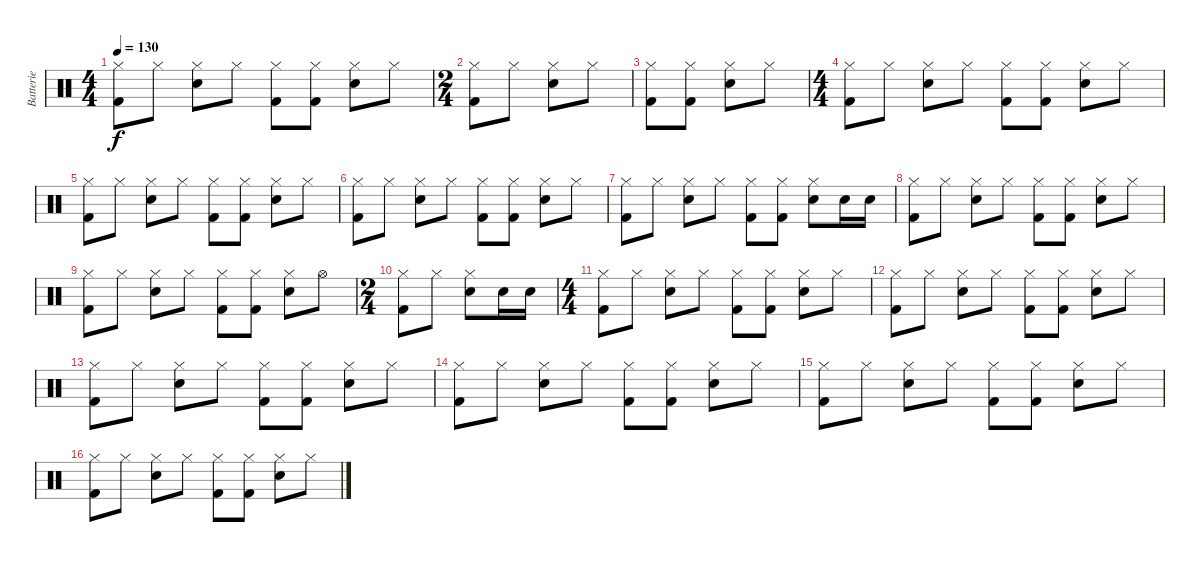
\track ("Batterie" "Batterie") {instrument percussion}
\staff {score}
\articulation defaults
\ts (4 4)
\tempo 130
\clef neutral
\ks c
("Hi-Hat (closed)" "Kick (hit) 2").8{dy f} "Hi-Hat (closed)".8 ("Hi-Hat (closed)" "Snare (hit) 2").8 "Hi-Hat (closed)".8 ("Hi-Hat (closed)" "Kick (hit) 2").8 ("Hi-Hat (closed)" "Kick (hit) 2").8 ("Hi-Hat (closed)" "Snare (hit) 2").8 "Hi-Hat (closed)".8 |
\ts (2 4)
("Hi-Hat (closed)" "Kick (hit) 2").8 "Hi-Hat (closed)".8 ("Hi-Hat (closed)" "Snare (hit) 2").8 "Hi-Hat (closed)".8 |
("Hi-Hat (closed)" "Kick (hit) 2").8 ("Hi-Hat (closed)" "Kick (hit) 2").8 ("Hi-Hat (closed)" "Snare (hit) 2").8 "Hi-Hat (closed)".8 |
\ts (4 4)
("Hi-Hat (closed)" "Kick (hit) 2").8 "Hi-Hat (closed)".8 ("Hi-Hat (closed)" "Snare (hit) 2").8 "Hi-Hat (closed)".8 ("Hi-Hat (closed)" "Kick (hit) 2").8 ("Hi-Hat (closed)" "Kick (hit) 2").8 ("Hi-Hat (closed)" "Snare (hit) 2").8 "Hi-Hat (closed)".8 |
("Hi-Hat (closed)" "Kick (hit) 2").8 "Hi-Hat (closed)".8 ("Hi-Hat (closed)" "Snare (hit) 2").8 "Hi-Hat (closed)".8 ("Hi-Hat (closed)" "Kick (hit) 2").8 ("Hi-Hat (closed)" "Kick (hit) 2").8 ("Hi-Hat (closed)" "Snare (hit) 2").8 "Hi-Hat (closed)".8 |
("Hi-Hat (closed)" "Kick (hit) 2").8 "Hi-Hat (closed)".8 ("Hi-Hat (closed)" "Snare (hit) 2").8 "Hi-Hat (closed)".8 ("Hi-Hat (closed)" "Kick (hit) 2").8 ("Hi-Hat (closed)" "Kick (hit) 2").8 ("Hi-Hat (closed)" "Snare (hit) 2").8 "Hi-Hat (closed)".8 |
("Hi-Hat (closed)" "Kick (hit) 2").8 "Hi-Hat (closed)".8 ("Hi-Hat (closed)" "Snare (hit) 2").8 "Hi-Hat (closed)".8 ("Hi-Hat (closed)" "Kick (hit) 2").8 ("Hi-Hat (closed)" "Kick (hit) 2").8 ("Hi-Hat (closed)" "Snare (hit) 2").8 "Snare (hit) 2".16 "Snare (hit) 2".16 |
("Hi-Hat (closed)" "Kick (hit) 2").8 "Hi-Hat (closed)".8 ("Hi-Hat (closed)" "Snare (hit) 2").8 "Hi-Hat (closed)".8 ("Hi-Hat (closed)" "Kick (hit) 2").8 ("Hi-Hat (closed)" "Kick (hit) 2").8 ("Hi-Hat (closed)" "Snare (hit) 2").8 "Hi-Hat (closed)".8 |
("Hi-Hat (closed)" "Kick (hit) 2").8 "Hi-Hat (closed)".8 ("Hi-Hat (closed)" "Snare (hit) 2").8 "Hi-Hat (closed)".8 ("Hi-Hat (closed)" "Kick (hit) 2").8 ("Hi-Hat (closed)" "Kick (hit) 2").8 ("Hi-Hat (closed)" "Snare (hit) 2").8 "Hi-Hat (open)".8 |
\ts (2 4)
("Hi-Hat (closed)" "Kick (hit) 2").8 "Hi-Hat (closed)".8 ("Hi-Hat (closed)" "Snare (hit) 2").8 "Snare (hit) 2".16 "Snare (hit) 2".16 |
\ts (4 4)
("Hi-Hat (closed)" "Kick (hit) 2").8 "Hi-Hat (closed)".8 ("Hi-Hat (closed)" "Snare (hit) 2").8 "Hi-Hat (closed)".8 ("Hi-Hat (closed)" "Kick (hit) 2").8 ("Hi-Hat (closed)" "Kick (hit) 2").8 ("Hi-Hat (closed)" "Snare (hit) 2").8 "Hi-Hat (closed)".8 |
("Hi-Hat (closed)" "Kick (hit) 2").8 "Hi-Hat (closed)".8 ("Hi-Hat (closed)" "Snare (hit) 2").8 "Hi-Hat (closed)".8 ("Hi-Hat (closed)" "Kick (hit) 2").8 ("Hi-Hat (closed)" "Kick (hit) 2").8 ("Hi-Hat (closed)" "Snare (hit) 2").8 "Hi-Hat (closed)".8 |
("Hi-Hat (closed)" "Kick (hit) 2").8 "Hi-Hat (closed)".8 ("Hi-Hat (closed)" "Snare (hit) 2").8 "Hi-Hat (closed)".8 ("Hi-Hat (closed)" "Kick (hit) 2").8 ("Hi-Hat (closed)" "Kick (hit) 2").8 ("Hi-Hat (closed)" "Snare (hit) 2").8 "Hi-Hat (closed)".8 |
("Hi-Hat (closed)" "Kick (hit) 2").8 "Hi-Hat (closed)".8 ("Hi-Hat (closed)" "Snare (hit) 2").8 "Hi-Hat (closed)".8 ("Hi-Hat (closed)" "Kick (hit) 2").8 ("Hi-Hat (closed)" "Kick (hit) 2").8 ("Hi-Hat (closed)" "Snare (hit) 2").8 "Hi-Hat (closed)".8 |
("Hi-Hat (closed)" "Kick (hit) 2").8 "Hi-Hat (closed)".8 ("Hi-Hat (closed)" "Snare (hit) 2").8 "Hi-Hat (closed)".8 ("Hi-Hat (closed)" "Kick (hit) 2").8 ("Hi-Hat (closed)" "Kick (hit) 2").8 ("Hi-Hat (closed)" "Snare (hit) 2").8 "Hi-Hat (closed)".8 |
("Hi-Hat (closed)" "Kick (hit) 2").8 "Hi-Hat (closed)".8 ("Hi-Hat (closed)" "Snare (hit) 2").8 "Hi-Hat (closed)".8 ("Hi-Hat (closed)" "Kick (hit) 2").8 ("Hi-Hat (closed)" "Kick (hit) 2").8 ("Hi-Hat (closed)" "Snare (hit) 2").8 "Hi-Hat (closed)".8
